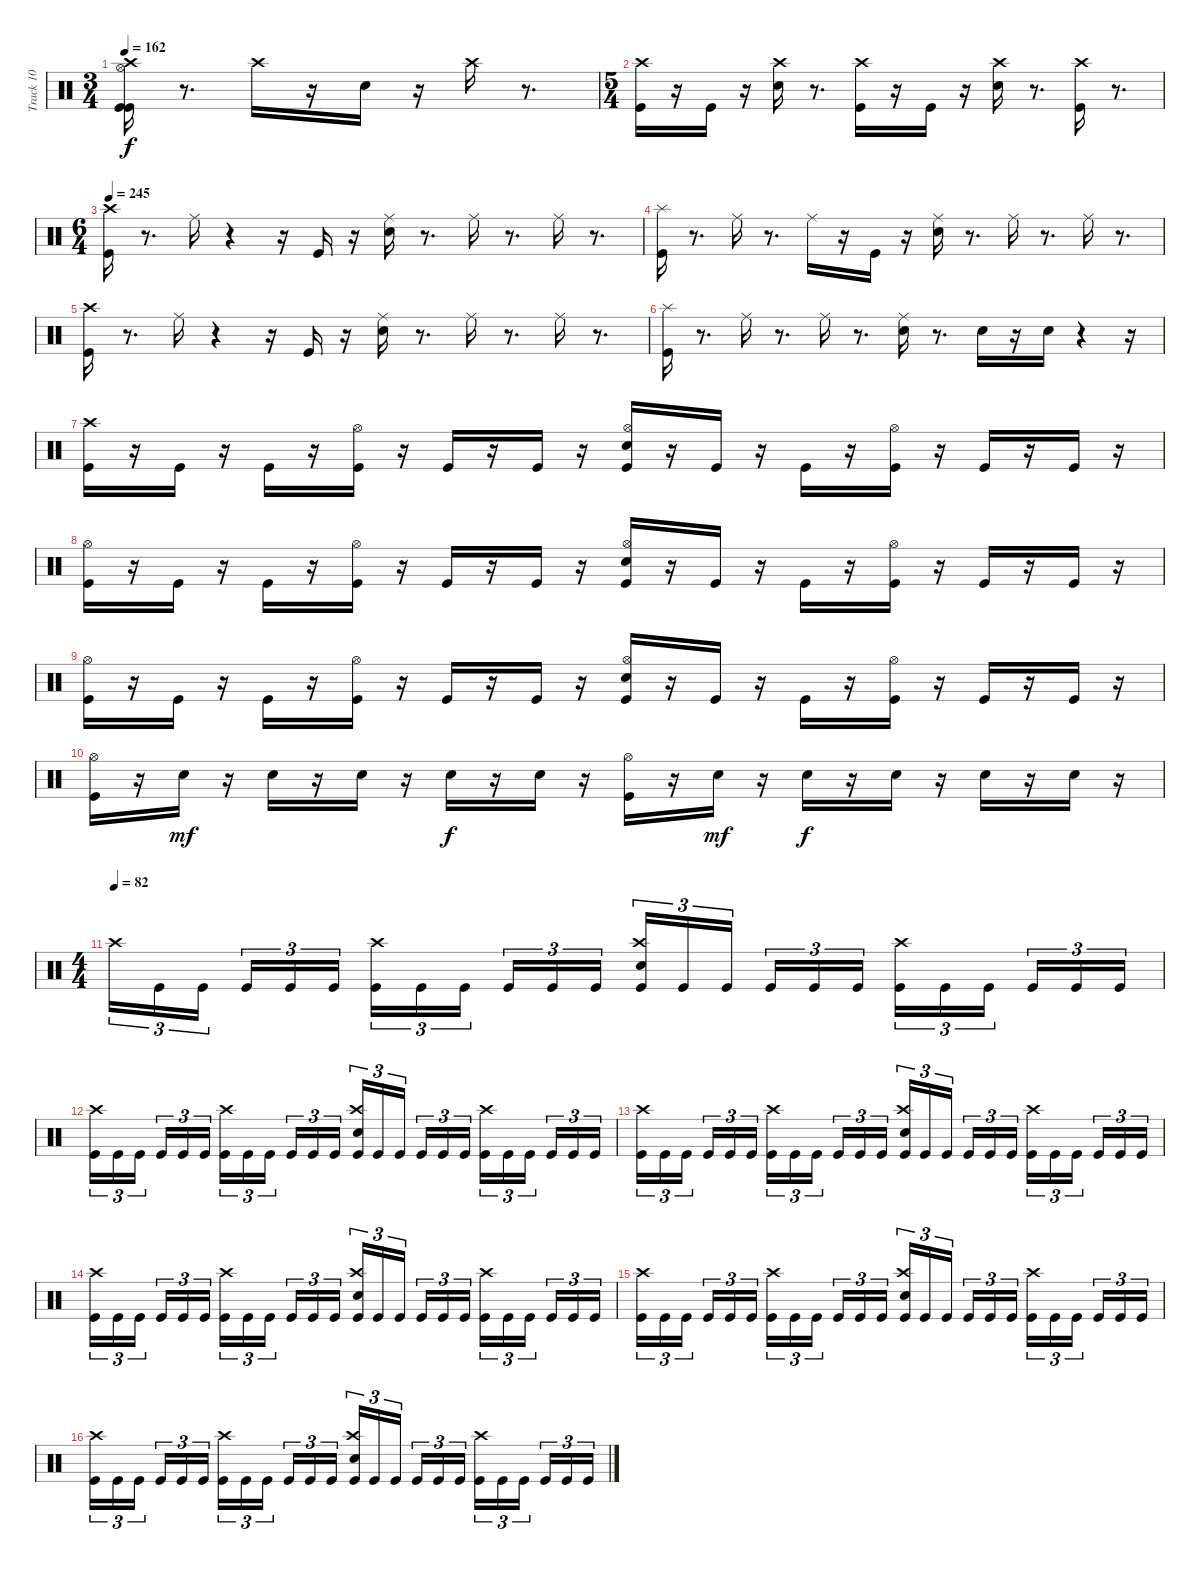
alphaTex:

\track ("Track 10" "Track 10") {instrument percussion}
\staff {score}
\articulation defaults
\ts (3 4)
\tempo 162
\clef neutral
\ks c
("Kick (hit)" "Kick (hit)" "Hi-Hat (open)" "Crash high (hit)").16{dy f} r.8{d} "Crash high (hit)".16 r.16 "Snare (hit) 2".16 r.16 "Crash high (hit)".16 r.8{d} |
\ts (5 4)
("Kick (hit)" "Crash high (hit)").16 r.16 "Kick (hit)".16 r.16 ("Snare (hit) 2" "Crash high (hit)").16 r.8{d} ("Kick (hit)" "Crash high (hit)").16 r.16 "Kick (hit)".16 r.16 ("Snare (hit) 2" "Crash high (hit)").16 r.8{d} ("Kick (hit)" "Crash high (hit)").16 r.8{d} |
\ts (6 4)
\tempo 245
("Kick (hit)" "Crash high (hit)").16 r.8{d} "Ride (middle)".16 r.4 r.16 "Kick (hit)".16 r.16 ("Snare (hit) 2" "Ride (middle)").16 r.8{d} "Ride (middle)".16 r.8{d} "Ride (middle)".16 r.8{d} |
("Kick (hit)" "Splash (hit)").16 r.8{d} "Ride (middle)".16 r.8{d} "Ride (middle)".16 r.16 "Kick (hit)".16 r.16 ("Snare (hit) 2" "Ride (middle)").16 r.8{d} "Ride (middle)".16 r.8{d} "Ride (middle)".16 r.8{d} |
("Kick (hit)" "Crash high (hit)").16 r.8{d} "Ride (middle)".16 r.4 r.16 "Kick (hit)".16 r.16 ("Snare (hit) 2" "Ride (middle)").16 r.8{d} "Ride (middle)".16 r.8{d} "Ride (middle)".16 r.8{d} |
("Kick (hit)" "Splash (hit)").16 r.8{d} "Ride (middle)".16 r.8{d} "Ride (middle)".16 r.8{d} ("Snare (hit) 2" "Ride (middle)").16 r.8{d} "Snare (hit) 2".16 r.16 "Snare (hit) 2".16 r.4 r.16 |
("Kick (hit)" "Crash high (hit)").16 r.16 "Kick (hit)".16 r.16 "Kick (hit)".16 r.16 ("Kick (hit)" "Hi-Hat (open)").16 r.16 "Kick (hit)".16 r.16 "Kick (hit)".16 r.16 ("Kick (hit)" "Snare (hit) 2" "Hi-Hat (open)").16 r.16 "Kick (hit)".16 r.16 "Kick (hit)".16 r.16 ("Kick (hit)" "Hi-Hat (open)").16 r.16 "Kick (hit)".16 r.16 "Kick (hit)".16 r.16 |
("Kick (hit)" "Hi-Hat (open)").16 r.16 "Kick (hit)".16 r.16 "Kick (hit)".16 r.16 ("Kick (hit)" "Hi-Hat (open)").16 r.16 "Kick (hit)".16 r.16 "Kick (hit)".16 r.16 ("Kick (hit)" "Snare (hit) 2" "Hi-Hat (open)").16 r.16 "Kick (hit)".16 r.16 "Kick (hit)".16 r.16 ("Kick (hit)" "Hi-Hat (open)").16 r.16 "Kick (hit)".16 r.16 "Kick (hit)".16 r.16 |
("Kick (hit)" "Hi-Hat (open)").16 r.16 "Kick (hit)".16 r.16 "Kick (hit)".16 r.16 ("Kick (hit)" "Hi-Hat (open)").16 r.16 "Kick (hit)".16 r.16 "Kick (hit)".16 r.16 ("Kick (hit)" "Snare (hit) 2" "Hi-Hat (open)").16 r.16 "Kick (hit)".16 r.16 "Kick (hit)".16 r.16 ("Kick (hit)" "Hi-Hat (open)").16 r.16 "Kick (hit)".16 r.16 "Kick (hit)".16 r.16 |
("Kick (hit)" "Hi-Hat (open)").16 r.16 "Snare (hit) 2".16{dy mf} r.16 "Snare (hit) 2".16 r.16 "Snare (hit) 2".16 r.16 "Snare (hit) 2".16{dy f} r.16 "Snare (hit) 2".16 r.16 ("Kick (hit)" "Hi-Hat (open)").16 r.16 "Snare (hit) 2".16{dy mf} r.16 "Snare (hit) 2".16{dy f} r.16 "Snare (hit) 2".16 r.16 "Snare (hit) 2".16 r.16 "Snare (hit) 2".16 r.16 |
\ts (4 4)
\tempo (82)
"Crash high (hit)".16{tu (3 2)} "Kick (hit)".16{tu (3 2)} "Kick (hit)".16{tu (3 2)} "Kick (hit)".16{tu (3 2)} "Kick (hit)".16{tu (3 2)} "Kick (hit)".16{tu (3 2)} ("Kick (hit)" "Crash high (hit)").16{tu (3 2)} "Kick (hit)".16{tu (3 2)} "Kick (hit)".16{tu (3 2)} "Kick (hit)".16{tu (3 2)} "Kick (hit)".16{tu (3 2)} "Kick (hit)".16{tu (3 2)} ("Kick (hit)" "Snare (hit) 2" "Crash high (hit)").16{tu (3 2)} "Kick (hit)".16{tu (3 2)} "Kick (hit)".16{tu (3 2)} "Kick (hit)".16{tu (3 2)} "Kick (hit)".16{tu (3 2)} "Kick (hit)".16{tu (3 2)} ("Kick (hit)" "Crash high (hit)").16{tu (3 2)} "Kick (hit)".16{tu (3 2)} "Kick (hit)".16{tu (3 2)} "Kick (hit)".16{tu (3 2)} "Kick (hit)".16{tu (3 2)} "Kick (hit)".16{tu (3 2)} |
("Kick (hit)" "Crash high (hit)").16{tu (3 2)} "Kick (hit)".16{tu (3 2)} "Kick (hit)".16{tu (3 2)} "Kick (hit)".16{tu (3 2)} "Kick (hit)".16{tu (3 2)} "Kick (hit)".16{tu (3 2)} ("Kick (hit)" "Crash high (hit)").16{tu (3 2)} "Kick (hit)".16{tu (3 2)} "Kick (hit)".16{tu (3 2)} "Kick (hit)".16{tu (3 2)} "Kick (hit)".16{tu (3 2)} "Kick (hit)".16{tu (3 2)} ("Kick (hit)" "Snare (hit) 2" "Crash high (hit)").16{tu (3 2)} "Kick (hit)".16{tu (3 2)} "Kick (hit)".16{tu (3 2)} "Kick (hit)".16{tu (3 2)} "Kick (hit)".16{tu (3 2)} "Kick (hit)".16{tu (3 2)} ("Kick (hit)" "Crash high (hit)").16{tu (3 2)} "Kick (hit)".16{tu (3 2)} "Kick (hit)".16{tu (3 2)} "Kick (hit)".16{tu (3 2)} "Kick (hit)".16{tu (3 2)} "Kick (hit)".16{tu (3 2)} |
("Kick (hit)" "Crash high (hit)").16{tu (3 2)} "Kick (hit)".16{tu (3 2)} "Kick (hit)".16{tu (3 2)} "Kick (hit)".16{tu (3 2)} "Kick (hit)".16{tu (3 2)} "Kick (hit)".16{tu (3 2)} ("Kick (hit)" "Crash high (hit)").16{tu (3 2)} "Kick (hit)".16{tu (3 2)} "Kick (hit)".16{tu (3 2)} "Kick (hit)".16{tu (3 2)} "Kick (hit)".16{tu (3 2)} "Kick (hit)".16{tu (3 2)} ("Kick (hit)" "Snare (hit) 2" "Crash high (hit)").16{tu (3 2)} "Kick (hit)".16{tu (3 2)} "Kick (hit)".16{tu (3 2)} "Kick (hit)".16{tu (3 2)} "Kick (hit)".16{tu (3 2)} "Kick (hit)".16{tu (3 2)} ("Kick (hit)" "Crash high (hit)").16{tu (3 2)} "Kick (hit)".16{tu (3 2)} "Kick (hit)".16{tu (3 2)} "Kick (hit)".16{tu (3 2)} "Kick (hit)".16{tu (3 2)} "Kick (hit)".16{tu (3 2)} |
("Kick (hit)" "Crash high (hit)").16{tu (3 2)} "Kick (hit)".16{tu (3 2)} "Kick (hit)".16{tu (3 2)} "Kick (hit)".16{tu (3 2)} "Kick (hit)".16{tu (3 2)} "Kick (hit)".16{tu (3 2)} ("Kick (hit)" "Crash high (hit)").16{tu (3 2)} "Kick (hit)".16{tu (3 2)} "Kick (hit)".16{tu (3 2)} "Kick (hit)".16{tu (3 2)} "Kick (hit)".16{tu (3 2)} "Kick (hit)".16{tu (3 2)} ("Kick (hit)" "Snare (hit) 2" "Crash high (hit)").16{tu (3 2)} "Kick (hit)".16{tu (3 2)} "Kick (hit)".16{tu (3 2)} "Kick (hit)".16{tu (3 2)} "Kick (hit)".16{tu (3 2)} "Kick (hit)".16{tu (3 2)} ("Kick (hit)" "Crash high (hit)").16{tu (3 2)} "Kick (hit)".16{tu (3 2)} "Kick (hit)".16{tu (3 2)} "Kick (hit)".16{tu (3 2)} "Kick (hit)".16{tu (3 2)} "Kick (hit)".16{tu (3 2)} |
("Kick (hit)" "Crash high (hit)").16{tu (3 2)} "Kick (hit)".16{tu (3 2)} "Kick (hit)".16{tu (3 2)} "Kick (hit)".16{tu (3 2)} "Kick (hit)".16{tu (3 2)} "Kick (hit)".16{tu (3 2)} ("Kick (hit)" "Crash high (hit)").16{tu (3 2)} "Kick (hit)".16{tu (3 2)} "Kick (hit)".16{tu (3 2)} "Kick (hit)".16{tu (3 2)} "Kick (hit)".16{tu (3 2)} "Kick (hit)".16{tu (3 2)} ("Kick (hit)" "Snare (hit) 2" "Crash high (hit)").16{tu (3 2)} "Kick (hit)".16{tu (3 2)} "Kick (hit)".16{tu (3 2)} "Kick (hit)".16{tu (3 2)} "Kick (hit)".16{tu (3 2)} "Kick (hit)".16{tu (3 2)} ("Kick (hit)" "Crash high (hit)").16{tu (3 2)} "Kick (hit)".16{tu (3 2)} "Kick (hit)".16{tu (3 2)} "Kick (hit)".16{tu (3 2)} "Kick (hit)".16{tu (3 2)} "Kick (hit)".16{tu (3 2)} |
("Kick (hit)" "Crash high (hit)").16{tu (3 2)} "Kick (hit)".16{tu (3 2)} "Kick (hit)".16{tu (3 2)} "Kick (hit)".16{tu (3 2)} "Kick (hit)".16{tu (3 2)} "Kick (hit)".16{tu (3 2)} ("Kick (hit)" "Crash high (hit)").16{tu (3 2)} "Kick (hit)".16{tu (3 2)} "Kick (hit)".16{tu (3 2)} "Kick (hit)".16{tu (3 2)} "Kick (hit)".16{tu (3 2)} "Kick (hit)".16{tu (3 2)} ("Kick (hit)" "Snare (hit) 2" "Crash high (hit)").16{tu (3 2)} "Kick (hit)".16{tu (3 2)} "Kick (hit)".16{tu (3 2)} "Kick (hit)".16{tu (3 2)} "Kick (hit)".16{tu (3 2)} "Kick (hit)".16{tu (3 2)} ("Kick (hit)" "Crash high (hit)").16{tu (3 2)} "Kick (hit)".16{tu (3 2)} "Kick (hit)".16{tu (3 2)} "Kick (hit)".16{tu (3 2)} "Kick (hit)".16{tu (3 2)} "Kick (hit)".16{tu (3 2)}
